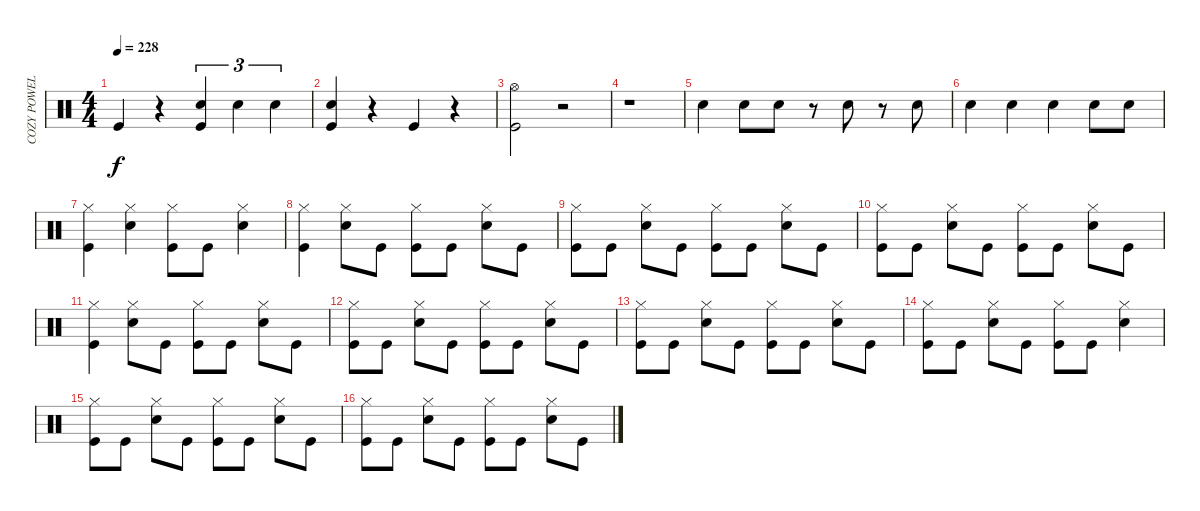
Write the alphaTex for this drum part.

\track ("COZY POWELL" "COZY POWEL") {instrument percussion}
\staff {score}
\articulation defaults
\ts (4 4)
\tempo 228
\clef neutral
\ks c "Kick (hit)".4{dy f}
r.4 ("Snare (hit) 2" "Kick (hit)").4{tu (3 2)} "Snare (hit) 2".4{tu (3 2)} "Snare (hit) 2".4{tu (3 2)} |
("Snare (hit) 2" "Kick (hit)").4 r.4 "Kick (hit)".4 r.4 |
("Hi-Hat (open)" "Kick (hit)").2 r.2 |
r.1 |
"Snare (hit) 2".4 "Snare (hit) 2".8 "Snare (hit) 2".8 r.8 "Snare (hit) 2".8 r.8 "Snare (hit) 2".8 |
"Snare (hit) 2".4 "Snare (hit) 2".4 "Snare (hit) 2".4 "Snare (hit) 2".8 "Snare (hit) 2".8 |
("Hi-Hat (closed)" "Kick (hit)").4 ("Hi-Hat (closed)" "Snare (hit) 2").4 ("Hi-Hat (closed)" "Kick (hit)").8 "Kick (hit)".8 ("Hi-Hat (closed)" "Snare (hit) 2").4 |
("Hi-Hat (closed)" "Kick (hit)").4 ("Hi-Hat (closed)" "Snare (hit) 2").8 "Kick (hit)".8 ("Hi-Hat (closed)" "Kick (hit)").8 "Kick (hit)".8 ("Hi-Hat (closed)" "Snare (hit) 2").8 "Kick (hit)".8 |
("Hi-Hat (closed)" "Kick (hit)").8 "Kick (hit)".8 ("Hi-Hat (closed)" "Snare (hit) 2").8 "Kick (hit)".8 ("Hi-Hat (closed)" "Kick (hit)").8 "Kick (hit)".8 ("Hi-Hat (closed)" "Snare (hit) 2").8 "Kick (hit)".8 |
("Hi-Hat (closed)" "Kick (hit)").8 "Kick (hit)".8 ("Hi-Hat (closed)" "Snare (hit) 2").8 "Kick (hit)".8 ("Hi-Hat (closed)" "Kick (hit)").8 "Kick (hit)".8 ("Hi-Hat (closed)" "Snare (hit) 2").8 "Kick (hit)".8 |
("Hi-Hat (closed)" "Kick (hit)").4 ("Hi-Hat (closed)" "Snare (hit) 2").8 "Kick (hit)".8 ("Hi-Hat (closed)" "Kick (hit)").8 "Kick (hit)".8 ("Hi-Hat (closed)" "Snare (hit) 2").8 "Kick (hit)".8 |
("Hi-Hat (closed)" "Kick (hit)").8 "Kick (hit)".8 ("Hi-Hat (closed)" "Snare (hit) 2").8 "Kick (hit)".8 ("Hi-Hat (closed)" "Kick (hit)").8 "Kick (hit)".8 ("Hi-Hat (closed)" "Snare (hit) 2").8 "Kick (hit)".8 |
("Hi-Hat (closed)" "Kick (hit)").8 "Kick (hit)".8 ("Hi-Hat (closed)" "Snare (hit) 2").8 "Kick (hit)".8 ("Hi-Hat (closed)" "Kick (hit)").8 "Kick (hit)".8 ("Hi-Hat (closed)" "Snare (hit) 2").8 "Kick (hit)".8 |
("Hi-Hat (closed)" "Kick (hit)").8 "Kick (hit)".8 ("Hi-Hat (closed)" "Snare (hit) 2").8 "Kick (hit)".8 ("Hi-Hat (closed)" "Kick (hit)").8 "Kick (hit)".8 ("Hi-Hat (closed)" "Snare (hit) 2").4 |
("Hi-Hat (closed)" "Kick (hit)").8 "Kick (hit)".8 ("Hi-Hat (closed)" "Snare (hit) 2").8 "Kick (hit)".8 ("Hi-Hat (closed)" "Kick (hit)").8 "Kick (hit)".8 ("Hi-Hat (closed)" "Snare (hit) 2").8 "Kick (hit)".8 |
("Hi-Hat (closed)" "Kick (hit)").8 "Kick (hit)".8 ("Hi-Hat (closed)" "Snare (hit) 2").8 "Kick (hit)".8 ("Hi-Hat (closed)" "Kick (hit)").8 "Kick (hit)".8 ("Hi-Hat (closed)" "Snare (hit) 2").8 "Kick (hit)".8
